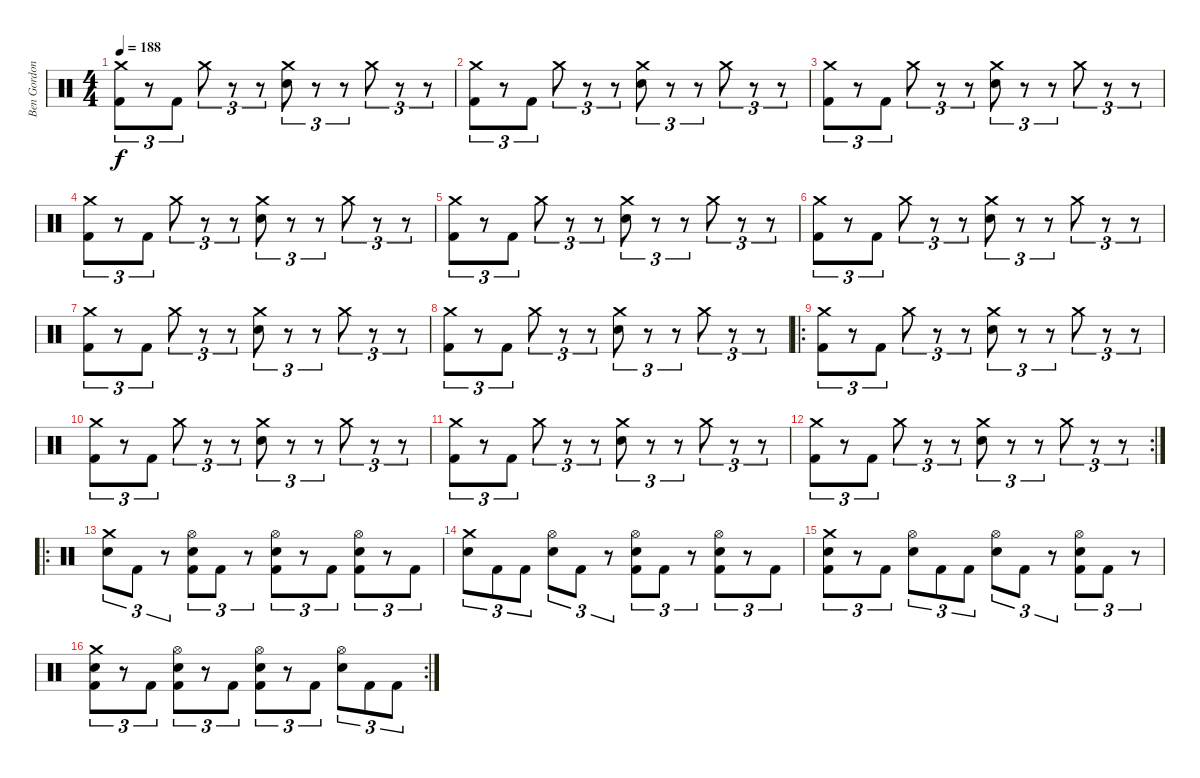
\track ("Ben Gordon" "Ben Gordon") {instrument percussion}
\staff {score}
\articulation defaults
\ts (4 4)
\tempo 188
\clef neutral
\ks c
("Crash medium (hit)" "Kick (hit) 2").8{tu (3 2) dy f} r.8{tu (3 2)} "Kick (hit) 2".8{tu (3 2)} "Crash medium (hit)".8{tu (3 2)} r.8{tu (3 2)} r.8{tu (3 2)} ("Electric Snare (hit)" "Crash medium (hit)").8{tu (3 2)} r.8{tu (3 2)} r.8{tu (3 2)} "Crash medium (hit)".8{tu (3 2)} r.8{tu (3 2)} r.8{tu (3 2)} |
("Crash medium (hit)" "Kick (hit) 2").8{tu (3 2)} r.8{tu (3 2)} "Kick (hit) 2".8{tu (3 2)} "Crash medium (hit)".8{tu (3 2)} r.8{tu (3 2)} r.8{tu (3 2)} ("Electric Snare (hit)" "Crash medium (hit)").8{tu (3 2)} r.8{tu (3 2)} r.8{tu (3 2)} "Crash medium (hit)".8{tu (3 2)} r.8{tu (3 2)} r.8{tu (3 2)} |
("Crash medium (hit)" "Kick (hit) 2").8{tu (3 2)} r.8{tu (3 2)} "Kick (hit) 2".8{tu (3 2)} "Crash medium (hit)".8{tu (3 2)} r.8{tu (3 2)} r.8{tu (3 2)} ("Electric Snare (hit)" "Crash medium (hit)").8{tu (3 2)} r.8{tu (3 2)} r.8{tu (3 2)} "Crash medium (hit)".8{tu (3 2)} r.8{tu (3 2)} r.8{tu (3 2)} |
("Crash medium (hit)" "Kick (hit) 2").8{tu (3 2)} r.8{tu (3 2)} "Kick (hit) 2".8{tu (3 2)} "Crash medium (hit)".8{tu (3 2)} r.8{tu (3 2)} r.8{tu (3 2)} ("Electric Snare (hit)" "Crash medium (hit)").8{tu (3 2)} r.8{tu (3 2)} r.8{tu (3 2)} "Crash medium (hit)".8{tu (3 2)} r.8{tu (3 2)} r.8{tu (3 2)} |
("Crash medium (hit)" "Kick (hit) 2").8{tu (3 2)} r.8{tu (3 2)} "Kick (hit) 2".8{tu (3 2)} "Crash medium (hit)".8{tu (3 2)} r.8{tu (3 2)} r.8{tu (3 2)} ("Electric Snare (hit)" "Crash medium (hit)").8{tu (3 2)} r.8{tu (3 2)} r.8{tu (3 2)} "Crash medium (hit)".8{tu (3 2)} r.8{tu (3 2)} r.8{tu (3 2)} |
("Crash medium (hit)" "Kick (hit) 2").8{tu (3 2)} r.8{tu (3 2)} "Kick (hit) 2".8{tu (3 2)} "Crash medium (hit)".8{tu (3 2)} r.8{tu (3 2)} r.8{tu (3 2)} ("Electric Snare (hit)" "Crash medium (hit)").8{tu (3 2)} r.8{tu (3 2)} r.8{tu (3 2)} "Crash medium (hit)".8{tu (3 2)} r.8{tu (3 2)} r.8{tu (3 2)} |
("Crash medium (hit)" "Kick (hit) 2").8{tu (3 2)} r.8{tu (3 2)} "Kick (hit) 2".8{tu (3 2)} "Crash medium (hit)".8{tu (3 2)} r.8{tu (3 2)} r.8{tu (3 2)} ("Electric Snare (hit)" "Crash medium (hit)").8{tu (3 2)} r.8{tu (3 2)} r.8{tu (3 2)} "Crash medium (hit)".8{tu (3 2)} r.8{tu (3 2)} r.8{tu (3 2)} |
("Crash medium (hit)" "Kick (hit) 2").8{tu (3 2)} r.8{tu (3 2)} "Kick (hit) 2".8{tu (3 2)} "Crash medium (hit)".8{tu (3 2)} r.8{tu (3 2)} r.8{tu (3 2)} ("Electric Snare (hit)" "Crash medium (hit)").8{tu (3 2)} r.8{tu (3 2)} r.8{tu (3 2)} "Crash medium (hit)".8{tu (3 2)} r.8{tu (3 2)} r.8{tu (3 2)} |
\ro
("Crash medium (hit)" "Kick (hit) 2").8{tu (3 2)} r.8{tu (3 2)} "Kick (hit) 2".8{tu (3 2)} "Crash medium (hit)".8{tu (3 2)} r.8{tu (3 2)} r.8{tu (3 2)} ("Electric Snare (hit)" "Crash medium (hit)").8{tu (3 2)} r.8{tu (3 2)} r.8{tu (3 2)} "Crash medium (hit)".8{tu (3 2)} r.8{tu (3 2)} r.8{tu (3 2)} |
("Crash medium (hit)" "Kick (hit) 2").8{tu (3 2)} r.8{tu (3 2)} "Kick (hit) 2".8{tu (3 2)} "Crash medium (hit)".8{tu (3 2)} r.8{tu (3 2)} r.8{tu (3 2)} ("Electric Snare (hit)" "Crash medium (hit)").8{tu (3 2)} r.8{tu (3 2)} r.8{tu (3 2)} "Crash medium (hit)".8{tu (3 2)} r.8{tu (3 2)} r.8{tu (3 2)} |
("Crash medium (hit)" "Kick (hit) 2").8{tu (3 2)} r.8{tu (3 2)} "Kick (hit) 2".8{tu (3 2)} "Crash medium (hit)".8{tu (3 2)} r.8{tu (3 2)} r.8{tu (3 2)} ("Electric Snare (hit)" "Crash medium (hit)").8{tu (3 2)} r.8{tu (3 2)} r.8{tu (3 2)} "Crash medium (hit)".8{tu (3 2)} r.8{tu (3 2)} r.8{tu (3 2)} |
\rc 2
("Crash medium (hit)" "Kick (hit) 2").8{tu (3 2)} r.8{tu (3 2)} "Kick (hit) 2".8{tu (3 2)} "Crash medium (hit)".8{tu (3 2)} r.8{tu (3 2)} r.8{tu (3 2)} ("Electric Snare (hit)" "Crash medium (hit)").8{tu (3 2)} r.8{tu (3 2)} r.8{tu (3 2)} "Crash medium (hit)".8{tu (3 2)} r.8{tu (3 2)} r.8{tu (3 2)} |
\ro
("Electric Snare (hit)" "Crash medium (hit)").8{tu (3 2)} "Kick (hit) 2".8{tu (3 2)} r.8{tu (3 2)} ("Electric Snare (hit)" "Hi-Hat (open)" "Kick (hit) 2").8{tu (3 2)} "Kick (hit) 2".8{tu (3 2)} r.8{tu (3 2)} ("Electric Snare (hit)" "Hi-Hat (open)" "Kick (hit) 2").8{tu (3 2)} r.8{tu (3 2)} "Kick (hit) 2".8{tu (3 2)} ("Electric Snare (hit)" "Hi-Hat (open)" "Kick (hit) 2").8{tu (3 2)} r.8{tu (3 2)} "Kick (hit) 2".8{tu (3 2)} |
("Electric Snare (hit)" "Crash medium (hit)").8{tu (3 2)} "Kick (hit) 2".8{tu (3 2)} "Kick (hit) 2".8{tu (3 2)} ("Electric Snare (hit)" "Hi-Hat (open)").8{tu (3 2)} "Kick (hit) 2".8{tu (3 2)} r.8{tu (3 2)} ("Electric Snare (hit)" "Hi-Hat (open)" "Kick (hit) 2").8{tu (3 2)} "Kick (hit) 2".8{tu (3 2)} r.8{tu (3 2)} ("Electric Snare (hit)" "Hi-Hat (open)" "Kick (hit) 2").8{tu (3 2)} r.8{tu (3 2)} "Kick (hit) 2".8{tu (3 2)} |
("Electric Snare (hit)" "Crash medium (hit)" "Kick (hit) 2").8{tu (3 2)} r.8{tu (3 2)} "Kick (hit) 2".8{tu (3 2)} ("Electric Snare (hit)" "Hi-Hat (open)").8{tu (3 2)} "Kick (hit) 2".8{tu (3 2)} "Kick (hit) 2".8{tu (3 2)} ("Electric Snare (hit)" "Hi-Hat (open)").8{tu (3 2)} "Kick (hit) 2".8{tu (3 2)} r.8{tu (3 2)} ("Electric Snare (hit)" "Hi-Hat (open)" "Kick (hit) 2").8{tu (3 2)} "Kick (hit) 2".8{tu (3 2)} r.8{tu (3 2)} |
\rc 2
("Electric Snare (hit)" "Crash medium (hit)" "Kick (hit) 2").8{tu (3 2)} r.8{tu (3 2)} "Kick (hit) 2".8{tu (3 2)} ("Electric Snare (hit)" "Hi-Hat (open)" "Kick (hit) 2").8{tu (3 2)} r.8{tu (3 2)} "Kick (hit) 2".8{tu (3 2)} ("Electric Snare (hit)" "Hi-Hat (open)" "Kick (hit) 2").8{tu (3 2)} r.8{tu (3 2)} "Kick (hit) 2".8{tu (3 2)} ("Electric Snare (hit)" "Hi-Hat (open)").8{tu (3 2)} "Kick (hit) 2".8{tu (3 2)} "Kick (hit) 2".8{tu (3 2)}
